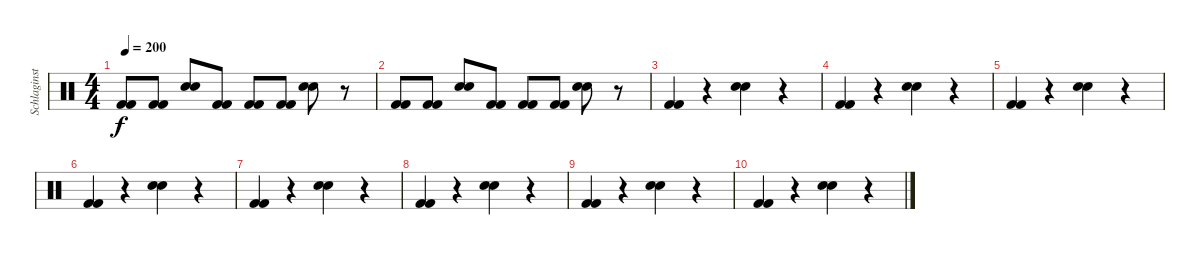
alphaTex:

\track ("Schlaginstrumente - Auswahl" "Schlaginst") {instrument percussion}
\staff {score}
\articulation defaults
\ts (4 4)
\tempo 200
\clef neutral
\ks c
("Kick (hit) 2" "Kick (hit) 2").8{dy f} ("Kick (hit) 2" "Kick (hit) 2").8 ("Electric Snare (hit)" "Electric Snare (hit)").8 ("Kick (hit) 2" "Kick (hit) 2").8 ("Kick (hit) 2" "Kick (hit) 2").8 ("Kick (hit) 2" "Kick (hit) 2").8 ("Electric Snare (hit)" "Electric Snare (hit)").8 r.8 |
("Kick (hit) 2" "Kick (hit) 2").8 ("Kick (hit) 2" "Kick (hit) 2").8 ("Electric Snare (hit)" "Electric Snare (hit)").8 ("Kick (hit) 2" "Kick (hit) 2").8 ("Kick (hit) 2" "Kick (hit) 2").8 ("Kick (hit) 2" "Kick (hit) 2").8 ("Electric Snare (hit)" "Electric Snare (hit)").8 r.8 |
("Kick (hit) 2" "Kick (hit) 2").4 r.4 ("Electric Snare (hit)" "Electric Snare (hit)").4 r.4 |
("Kick (hit) 2" "Kick (hit) 2").4 r.4 ("Electric Snare (hit)" "Electric Snare (hit)").4 r.4 |
("Kick (hit) 2" "Kick (hit) 2").4 r.4 ("Electric Snare (hit)" "Electric Snare (hit)").4 r.4 |
("Kick (hit) 2" "Kick (hit) 2").4 r.4 ("Electric Snare (hit)" "Electric Snare (hit)").4 r.4 |
("Kick (hit) 2" "Kick (hit) 2").4 r.4 ("Electric Snare (hit)" "Electric Snare (hit)").4 r.4 |
("Kick (hit) 2" "Kick (hit) 2").4 r.4 ("Electric Snare (hit)" "Electric Snare (hit)").4 r.4 |
("Kick (hit) 2" "Kick (hit) 2").4 r.4 ("Electric Snare (hit)" "Electric Snare (hit)").4 r.4 |
("Kick (hit) 2" "Kick (hit) 2").4 r.4 ("Electric Snare (hit)" "Electric Snare (hit)").4 r.4
